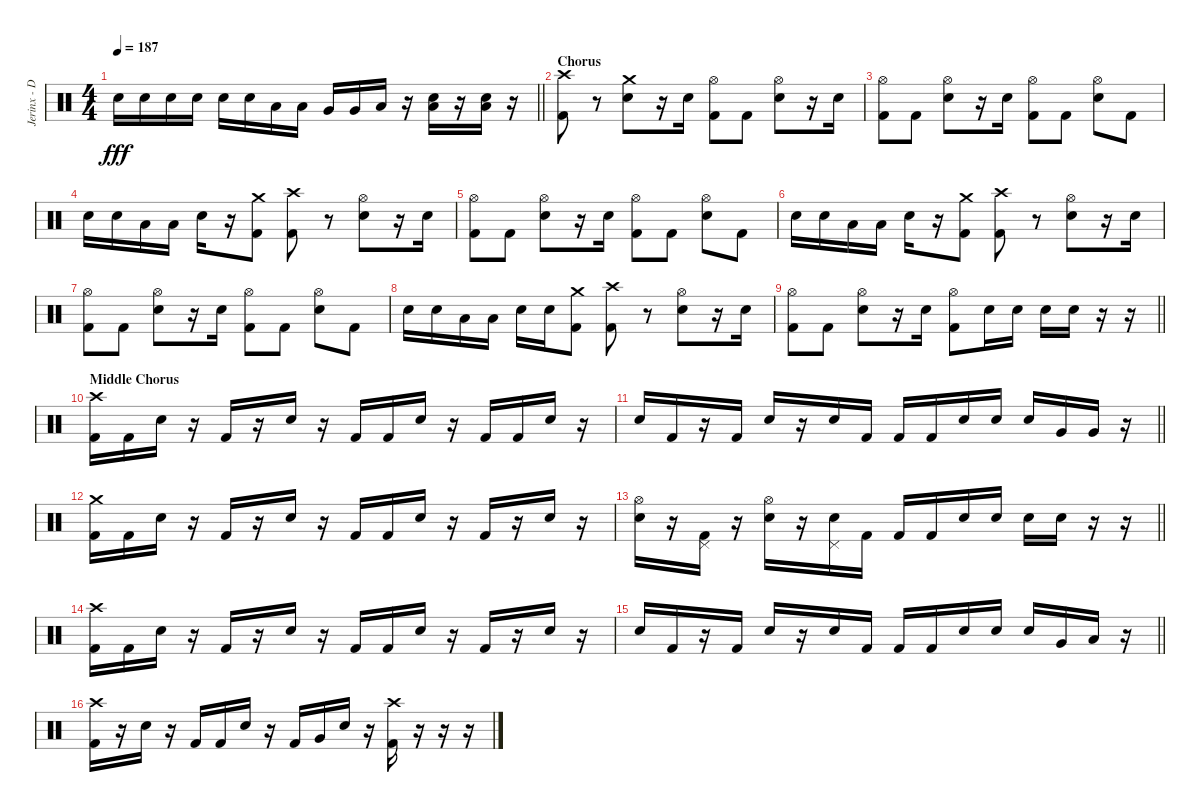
\track ("Jerinx - Drum" "Jerinx - D") {instrument percussion}
\staff {score}
\articulation defaults
\ts (4 4)
\tempo 187
\clef neutral
\barLineRight lightlight
\ks c "Snare (hit) 2".16{dy fff} "Snare (hit) 2".16 "Snare (hit) 2".16 "Snare (hit) 2".16 "Snare (hit) 2".16 "Snare (hit) 2".16 "Low Tom (hit)".16 "Low Tom (hit)".16 "Very Low Tom (hit)".16 "Very Low Tom (hit)".16 "Low Floor Tom (hit)".16
r.16 ("Snare (hit) 2" "Low Floor Tom (hit)").16 r.16 ("Snare (hit) 2" "Low Floor Tom (hit)").16 r.16 |
\section ("" "Chorus")
("Kick (hit) 2" "Crash high (hit)").8 r.8 ("Snare (hit) 2" "Crash medium (hit)").8 r.16 "Snare (hit) 2".16 ("Hi-Hat (open)" "Kick (hit) 2").8 "Kick (hit) 2".8 ("Hi-Hat (open)" "Snare (hit) 2").8 r.16 "Snare (hit) 2".16 |
("Hi-Hat (open)" "Kick (hit) 2").8 "Kick (hit) 2".8 ("Hi-Hat (open)" "Snare (hit) 2").8 r.16 "Snare (hit) 2".16 ("Hi-Hat (open)" "Kick (hit) 2").8 "Kick (hit) 2".8 ("Hi-Hat (open)" "Snare (hit) 2").8 "Kick (hit) 2".8 |
"Snare (hit) 2".16 "Snare (hit) 2".16 "Low Tom (hit)".16 "Low Tom (hit)".16 "Snare (hit) 2".16 r.16 ("Kick (hit) 2" "Crash medium (hit)").8 ("Kick (hit) 2" "Crash high (hit)").8 r.8 ("Hi-Hat (open)" "Snare (hit) 2").8 r.16 "Snare (hit) 2".16 |
("Hi-Hat (open)" "Kick (hit) 2").8 "Kick (hit) 2".8 ("Hi-Hat (open)" "Snare (hit) 2").8 r.16 "Snare (hit) 2".16 ("Hi-Hat (open)" "Kick (hit) 2").8 "Kick (hit) 2".8 ("Hi-Hat (open)" "Snare (hit) 2").8 "Kick (hit) 2".8 |
"Snare (hit) 2".16 "Snare (hit) 2".16 "Low Tom (hit)".16 "Low Tom (hit)".16 "Snare (hit) 2".16 r.16 ("Kick (hit) 2" "Crash medium (hit)").8 ("Kick (hit) 2" "Crash high (hit)").8 r.8 ("Hi-Hat (open)" "Snare (hit) 2").8 r.16 "Snare (hit) 2".16 |
("Hi-Hat (open)" "Kick (hit) 2").8 "Kick (hit) 2".8 ("Hi-Hat (open)" "Snare (hit) 2").8 r.16 "Snare (hit) 2".16 ("Hi-Hat (open)" "Kick (hit) 2").8 "Kick (hit) 2".8 ("Hi-Hat (open)" "Snare (hit) 2").8 "Kick (hit) 2".8 |
"Snare (hit) 2".16 "Snare (hit) 2".16 "Low Tom (hit)".16 "Low Tom (hit)".16 "Snare (hit) 2".16 "Snare (hit) 2".16 ("Kick (hit) 2" "Crash medium (hit)").8 ("Kick (hit) 2" "Crash high (hit)").8 r.8 ("Hi-Hat (open)" "Snare (hit) 2").8 r.16 "Snare (hit) 2".16 |
\barLineRight lightlight
("Hi-Hat (open)" "Kick (hit) 2").8 "Kick (hit) 2".8 ("Hi-Hat (open)" "Snare (hit) 2").8 r.16 "Snare (hit) 2".16 ("Hi-Hat (open)" "Kick (hit) 2").8 "Snare (hit) 2".16 "Snare (hit) 2".16 "Snare (hit) 2".16 "Snare (hit) 2".16 r.16 r.16 |
\section ("" "Middle Chorus")
("Kick (hit) 2" "Crash high (hit)").16 "Kick (hit) 2".16 "Snare (hit) 2".16 r.16 "Kick (hit) 2".16 r.16 "Snare (hit) 2".16 r.16 "Kick (hit) 2".16 "Kick (hit) 2".16 "Snare (hit) 2".16 r.16 "Kick (hit) 2".16 "Kick (hit) 2".16 "Snare (hit) 2".16 r.16 |
\barLineRight lightlight "Snare (hit) 2".16 "Kick (hit) 2".16
r.16 "Kick (hit) 2".16 "Snare (hit) 2".16 r.16 "Snare (hit) 2".16 "Kick (hit) 2".16 "Kick (hit) 2".16 "Kick (hit) 2".16 "Snare (hit) 2".16 "Snare (hit) 2".16 "Snare (hit) 2".16 "Very Low Tom (hit)".16 "Very Low Tom (hit)".16 r.16 |
("Kick (hit) 2" "Crash medium (hit)").16 "Kick (hit) 2".16 "Snare (hit) 2".16 r.16 "Kick (hit) 2".16 r.16 "Snare (hit) 2".16 r.16 "Kick (hit) 2".16 "Kick (hit) 2".16 "Snare (hit) 2".16 r.16 "Kick (hit) 2".16 r.16 "Snare (hit) 2".16 r.16 |
\barLineRight lightlight
("Hi-Hat (open)" "Snare (hit) 2").16 r.16 ("Pedal Hi-Hat (hit)" "Kick (hit) 2").16 r.16 ("Hi-Hat (open)" "Snare (hit) 2").16 r.16 ("Pedal Hi-Hat (hit)" "Snare (hit) 2").16 "Kick (hit) 2".16 "Kick (hit) 2".16 "Kick (hit) 2".16 "Snare (hit) 2".16 "Snare (hit) 2".16 "Snare (hit) 2".16 "Snare (hit) 2".16 r.16 r.16 |
("Kick (hit) 2" "Crash high (hit)").16 "Kick (hit) 2".16 "Snare (hit) 2".16 r.16 "Kick (hit) 2".16 r.16 "Snare (hit) 2".16 r.16 "Kick (hit) 2".16 "Kick (hit) 2".16 "Snare (hit) 2".16 r.16 "Kick (hit) 2".16 r.16 "Snare (hit) 2".16 r.16 |
\barLineRight lightlight "Snare (hit) 2".16 "Kick (hit) 2".16
r.16 "Kick (hit) 2".16 "Snare (hit) 2".16 r.16 "Snare (hit) 2".16 "Kick (hit) 2".16 "Kick (hit) 2".16 "Kick (hit) 2".16 "Snare (hit) 2".16 "Snare (hit) 2".16 "Snare (hit) 2".16 "Very Low Tom (hit)".16 "Low Floor Tom (hit)".16 r.16 |
("Kick (hit) 2" "Crash high (hit)").16 r.16 "Snare (hit) 2".16 r.16 "Kick (hit) 2".16 "Kick (hit) 2".16 "Snare (hit) 2".16 r.16 "Kick (hit) 2".16 "Very Low Tom (hit)".16 "Snare (hit) 2".16 r.16 ("Kick (hit) 2" "Crash high (hit)").16 r.16 r.16 r.16
